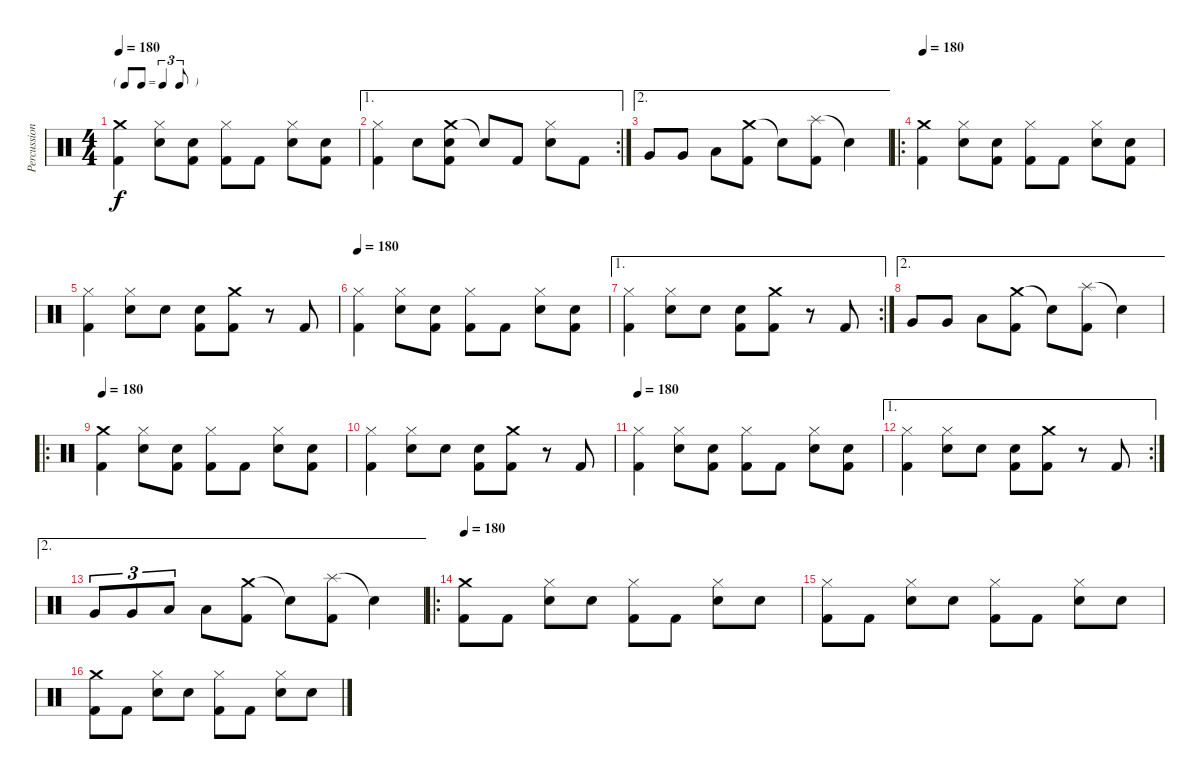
\track ("Percussions" "Percussion") {instrument percussion}
\staff {score}
\articulation defaults
\ts (4 4)
\tf triplet8th
\tempo 180
\clef neutral
\ks c
("Crash medium (hit)" "Kick (hit) 2").4{dy f} ("Hi-Hat (closed)" "Electric Snare (hit)").8 ("Electric Snare (hit)" "Kick (hit) 2").8 ("Hi-Hat (closed)" "Kick (hit) 2").8 "Kick (hit) 2".8 ("Hi-Hat (closed)" "Electric Snare (hit)").8 ("Electric Snare (hit)" "Kick (hit) 2").8 |
\ae 1
\rc 2
("Hi-Hat (closed)" "Kick (hit) 2").4 "Electric Snare (hit)".8 ("Crash medium (hit)" "Electric Snare (hit)" "Kick (hit) 2").8 "Snare (hit)"{t}.8 "Kick (hit) 2".8 ("Hi-Hat (closed)" "Electric Snare (hit)").8 "Kick (hit) 2".8 |
\ae 2 "Very Low Tom (hit)".8 "Very Low Tom (hit)".8 "Low Floor Tom (hit)".8
("Crash medium (hit)" "Kick (hit) 2").8 "Snare (hit)"{t}.8 ("Splash (hit)" "Kick (hit) 2").8 "Snare (hit)"{t}.4 |
\ro
\tempo 180
("Crash medium (hit)" "Kick (hit) 2").4 ("Hi-Hat (closed)" "Electric Snare (hit)").8 ("Electric Snare (hit)" "Kick (hit) 2").8 ("Hi-Hat (closed)" "Kick (hit) 2").8 "Kick (hit) 2".8 ("Hi-Hat (closed)" "Electric Snare (hit)").8 ("Electric Snare (hit)" "Kick (hit) 2").8 |
("Hi-Hat (closed)" "Kick (hit) 2").4 ("Hi-Hat (closed)" "Electric Snare (hit)").8 "Electric Snare (hit)".8 ("Electric Snare (hit)" "Kick (hit) 2").8 ("Crash medium (hit)" "Kick (hit) 2").8 r.8 "Kick (hit) 2".8 |
\tempo 180
("Hi-Hat (closed)" "Kick (hit) 2").4 ("Hi-Hat (closed)" "Electric Snare (hit)").8 ("Electric Snare (hit)" "Kick (hit) 2").8 ("Hi-Hat (closed)" "Kick (hit) 2").8 "Kick (hit) 2".8 ("Hi-Hat (closed)" "Electric Snare (hit)").8 ("Electric Snare (hit)" "Kick (hit) 2").8 |
\ae 1
\rc 2
("Hi-Hat (closed)" "Kick (hit) 2").4 ("Hi-Hat (closed)" "Electric Snare (hit)").8 "Electric Snare (hit)".8 ("Electric Snare (hit)" "Kick (hit) 2").8 ("Crash medium (hit)" "Kick (hit) 2").8 r.8 "Kick (hit) 2".8 |
\ae 2 "Very Low Tom (hit)".8 "Very Low Tom (hit)".8 "Low Floor Tom (hit)".8
("Crash medium (hit)" "Kick (hit) 2").8 "Snare (hit)"{t}.8 ("Splash (hit)" "Kick (hit) 2").8 "Snare (hit)"{t}.4 |
\ro
\tempo 180
("Crash medium (hit)" "Kick (hit) 2").4 ("Hi-Hat (closed)" "Electric Snare (hit)").8 ("Electric Snare (hit)" "Kick (hit) 2").8 ("Hi-Hat (closed)" "Kick (hit) 2").8 "Kick (hit) 2".8 ("Hi-Hat (closed)" "Electric Snare (hit)").8 ("Electric Snare (hit)" "Kick (hit) 2").8 |
("Hi-Hat (closed)" "Kick (hit) 2").4 ("Hi-Hat (closed)" "Electric Snare (hit)").8 "Electric Snare (hit)".8 ("Electric Snare (hit)" "Kick (hit) 2").8 ("Crash medium (hit)" "Kick (hit) 2").8 r.8 "Kick (hit) 2".8 |
\tempo 180
("Hi-Hat (closed)" "Kick (hit) 2").4 ("Hi-Hat (closed)" "Electric Snare (hit)").8 ("Electric Snare (hit)" "Kick (hit) 2").8 ("Hi-Hat (closed)" "Kick (hit) 2").8 "Kick (hit) 2".8 ("Hi-Hat (closed)" "Electric Snare (hit)").8 ("Electric Snare (hit)" "Kick (hit) 2").8 |
\ae 1
\rc 2
("Hi-Hat (closed)" "Kick (hit) 2").4 ("Hi-Hat (closed)" "Electric Snare (hit)").8 "Electric Snare (hit)".8 ("Electric Snare (hit)" "Kick (hit) 2").8 ("Crash medium (hit)" "Kick (hit) 2").8 r.8 "Kick (hit) 2".8 |
\ae 2 "Very Low Tom (hit)".8{tu (3 2)} "Very Low Tom (hit)".8{tu (3 2)} "Low Floor Tom (hit)".8{tu (3 2)} "Low Floor Tom (hit)".8
("Crash medium (hit)" "Kick (hit) 2").8 "Snare (hit)"{t}.8 ("Splash (hit)" "Kick (hit) 2").8 "Snare (hit)"{t}.4 |
\ro
\tempo 180
("Crash medium (hit)" "Kick (hit) 2").8 "Kick (hit) 2".8 ("Hi-Hat (closed)" "Electric Snare (hit)").8 "Electric Snare (hit)".8 ("Hi-Hat (closed)" "Kick (hit) 2").8 "Kick (hit) 2".8 ("Hi-Hat (closed)" "Electric Snare (hit)").8 "Electric Snare (hit)".8 |
("Hi-Hat (closed)" "Kick (hit) 2").8 "Kick (hit) 2".8 ("Hi-Hat (closed)" "Electric Snare (hit)").8 "Electric Snare (hit)".8 ("Hi-Hat (closed)" "Kick (hit) 2").8 "Kick (hit) 2".8 ("Hi-Hat (closed)" "Electric Snare (hit)").8 "Electric Snare (hit)".8 |
("Crash medium (hit)" "Kick (hit) 2").8 "Kick (hit) 2".8 ("Hi-Hat (closed)" "Electric Snare (hit)").8 "Electric Snare (hit)".8 ("Hi-Hat (closed)" "Kick (hit) 2").8 "Kick (hit) 2".8 ("Hi-Hat (closed)" "Electric Snare (hit)").8 "Electric Snare (hit)".8
